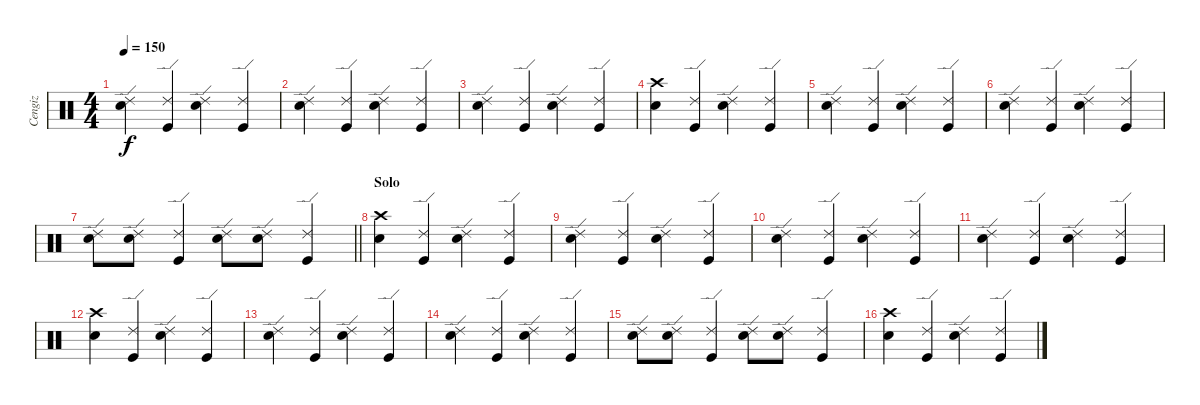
\track ("Cengiz" "Cengiz") {instrument percussion}
\staff {score}
\articulation defaults
\ts (4 4)
\tempo 150
\clef neutral
\ks c
("Ride (edge) 2" "Snare (hit) 2").4{dy f} ("Ride (edge) 2" "Kick (hit)").4 ("Ride (edge) 2" "Snare (hit) 2").4 ("Ride (edge) 2" "Kick (hit)").4 |
("Ride (edge) 2" "Snare (hit) 2").4 ("Ride (edge) 2" "Kick (hit)").4 ("Ride (edge) 2" "Snare (hit) 2").4 ("Ride (edge) 2" "Kick (hit)").4 |
("Ride (edge) 2" "Snare (hit) 2").4 ("Ride (edge) 2" "Kick (hit)").4 ("Ride (edge) 2" "Snare (hit) 2").4 ("Ride (edge) 2" "Kick (hit)").4 |
("Crash high (hit)" "Snare (hit) 2").4 ("Ride (edge) 2" "Kick (hit)").4 ("Ride (edge) 2" "Snare (hit) 2").4 ("Ride (edge) 2" "Kick (hit)").4 |
("Ride (edge) 2" "Snare (hit) 2").4 ("Ride (edge) 2" "Kick (hit)").4 ("Ride (edge) 2" "Snare (hit) 2").4 ("Ride (edge) 2" "Kick (hit)").4 |
("Ride (edge) 2" "Snare (hit) 2").4 ("Ride (edge) 2" "Kick (hit)").4 ("Ride (edge) 2" "Snare (hit) 2").4 ("Ride (edge) 2" "Kick (hit)").4 |
\barLineRight lightlight
("Ride (edge) 2" "Snare (hit) 2").8 ("Ride (edge) 2" "Snare (hit) 2").8 ("Ride (edge) 2" "Kick (hit)").4 ("Ride (edge) 2" "Snare (hit) 2").8 ("Ride (edge) 2" "Snare (hit) 2").8 ("Ride (edge) 2" "Kick (hit)").4 |
\section ("" "Solo")
("Crash high (hit)" "Snare (hit) 2").4 ("Ride (edge) 2" "Kick (hit)").4 ("Ride (edge) 2" "Snare (hit) 2").4 ("Ride (edge) 2" "Kick (hit)").4 |
("Ride (edge) 2" "Snare (hit) 2").4 ("Ride (edge) 2" "Kick (hit)").4 ("Ride (edge) 2" "Snare (hit) 2").4 ("Ride (edge) 2" "Kick (hit)").4 |
("Ride (edge) 2" "Snare (hit) 2").4 ("Ride (edge) 2" "Kick (hit)").4 ("Ride (edge) 2" "Snare (hit) 2").4 ("Ride (edge) 2" "Kick (hit)").4 |
("Ride (edge) 2" "Snare (hit) 2").4 ("Ride (edge) 2" "Kick (hit)").4 ("Ride (edge) 2" "Snare (hit) 2").4 ("Ride (edge) 2" "Kick (hit)").4 |
("Crash high (hit)" "Snare (hit) 2").4 ("Ride (edge) 2" "Kick (hit)").4 ("Ride (edge) 2" "Snare (hit) 2").4 ("Ride (edge) 2" "Kick (hit)").4 |
("Ride (edge) 2" "Snare (hit) 2").4 ("Ride (edge) 2" "Kick (hit)").4 ("Ride (edge) 2" "Snare (hit) 2").4 ("Ride (edge) 2" "Kick (hit)").4 |
("Ride (edge) 2" "Snare (hit) 2").4 ("Ride (edge) 2" "Kick (hit)").4 ("Ride (edge) 2" "Snare (hit) 2").4 ("Ride (edge) 2" "Kick (hit)").4 |
("Ride (edge) 2" "Snare (hit) 2").8 ("Ride (edge) 2" "Snare (hit) 2").8 ("Ride (edge) 2" "Kick (hit)").4 ("Ride (edge) 2" "Snare (hit) 2").8 ("Ride (edge) 2" "Snare (hit) 2").8 ("Ride (edge) 2" "Kick (hit)").4 |
("Crash high (hit)" "Snare (hit) 2").4 ("Ride (edge) 2" "Kick (hit)").4 ("Ride (edge) 2" "Snare (hit) 2").4 ("Ride (edge) 2" "Kick (hit)").4
